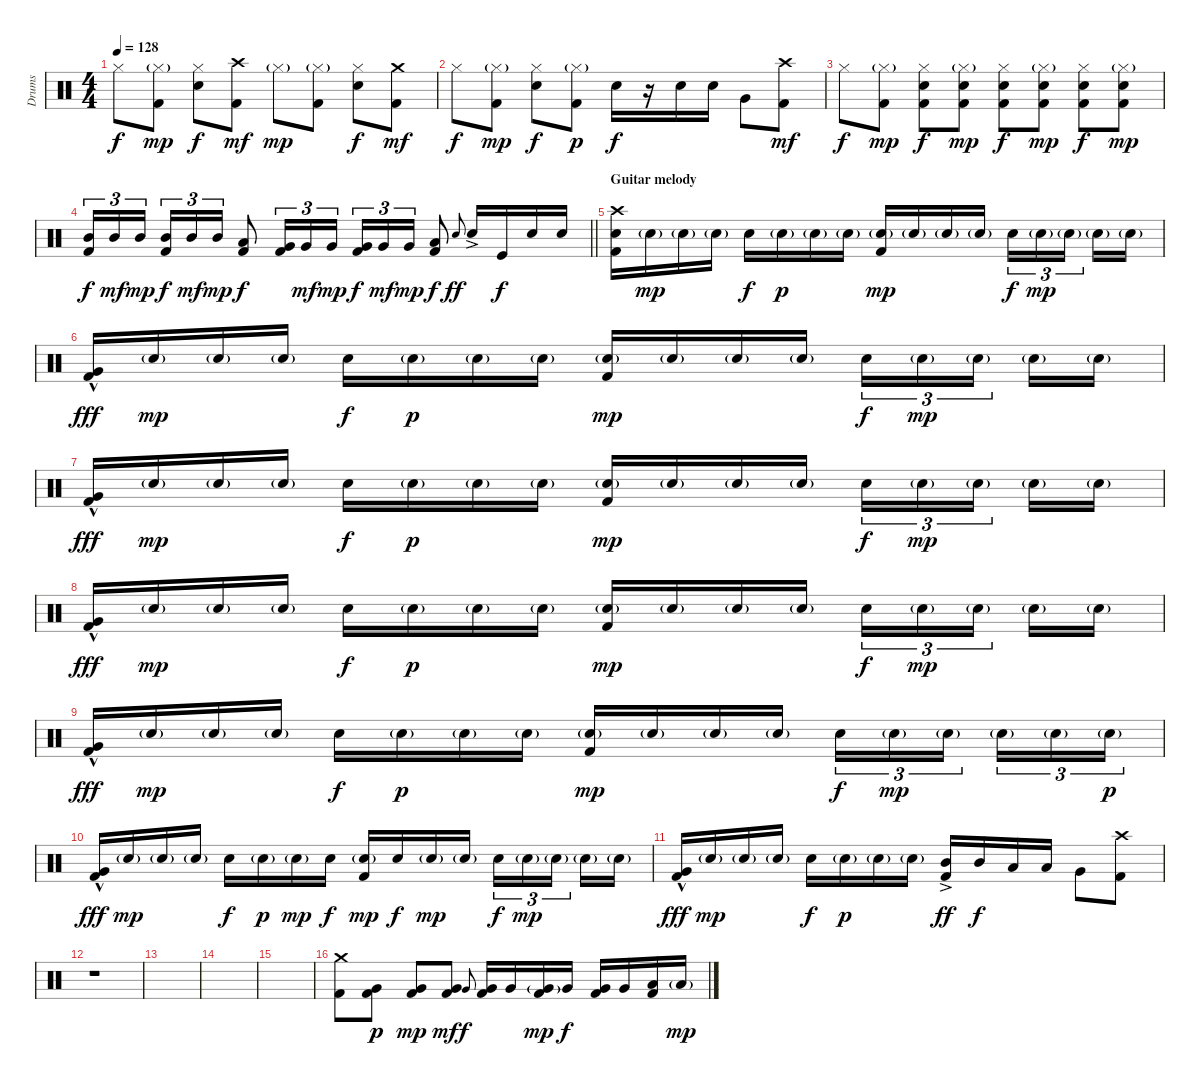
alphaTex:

\track ("Drums" "Drums") {instrument percussion}
\staff {score}
\articulation defaults
\ts (4 4)
\tempo 128
\clef neutral
\ks c "Hi-Hat (closed)".8{dy f}
("Hi-Hat (closed)"{g} "Kick (hit) 2").8{dy mp} ("Hi-Hat (closed)" "Electric Snare (hit)").8{dy f} ("Crash high (hit)" "Kick (hit) 2").8{dy mf} "Hi-Hat (closed)"{g}.8{dy mp} ("Hi-Hat (closed)"{g} "Kick (hit) 2").8 ("Hi-Hat (closed)" "Electric Snare (hit)").8{dy f} ("Crash medium (hit)" "Kick (hit) 2").8{dy mf} |
"Hi-Hat (closed)".8{dy f} ("Hi-Hat (closed)"{g} "Kick (hit) 2").8{dy mp} ("Hi-Hat (closed)" "Electric Snare (hit)").8{dy f} ("Hi-Hat (closed)"{g} "Kick (hit) 2").8{dy p} "Electric Snare (hit)".16{dy f} r.16 "Electric Snare (hit)".16 "Electric Snare (hit)".16 "Very Low Tom (hit)".8 ("Crash high (hit)" "Kick (hit) 2").8{dy mf} |
"Hi-Hat (closed)".8{dy f} ("Hi-Hat (closed)"{g} "Kick (hit) 2").8{dy mp} ("Hi-Hat (closed)" "Electric Snare (hit)" "Kick (hit) 2").8{dy f} ("Hi-Hat (closed)"{g} "Electric Snare (hit)" "Kick (hit) 2").8{dy mp} ("Hi-Hat (closed)" "Electric Snare (hit)" "Kick (hit) 2").8{dy f} ("Hi-Hat (closed)"{g} "Electric Snare (hit)" "Kick (hit) 2").8{dy mp} ("Hi-Hat (closed)" "Electric Snare (hit)" "Kick (hit) 2").8{dy f} ("Hi-Hat (closed)"{g} "Electric Snare (hit)" "Kick (hit) 2").8{dy mp} |
\barLineRight lightlight
("Mid Tom (hit)" "Kick (hit) 2").16{tu (3 2) dy f} "Mid Tom (hit)".16{tu (3 2) dy mf} "Mid Tom (hit)".16{tu (3 2) dy mp beam splitsecondary} ("Mid Tom (hit)" "Kick (hit) 2").16{tu (3 2) dy f} "Mid Tom (hit)".16{tu (3 2) dy mf} "Mid Tom (hit)".16{tu (3 2) dy mp} ("Low Tom (hit)" "Kick (hit) 2").8{dy f} ("Very Low Tom (hit)" "Kick (hit) 2").16{tu (3 2)} "Very Low Tom (hit)".16{tu (3 2) dy mf} "Very Low Tom (hit)".16{tu (3 2) dy mp} ("Very Low Tom (hit)" "Kick (hit) 2").16{tu (3 2) dy f} "Very Low Tom (hit)".16{tu (3 2) dy mf} "Very Low Tom (hit)".16{tu (3 2) dy mp} ("Low Floor Tom (hit)" "Kick (hit) 2").8{dy f} "Electric Snare (hit)".8{gr onbeat dy ff} "Electric Snare (hit)"{ac}.16 "Kick (hit)".16{dy f} "Electric Snare (hit)".16 "Electric Snare (hit)".16 |
\section ("" "Guitar melody")
("Crash high (hit)" "Electric Snare (hit)" "Kick (hit) 2").16{volume 15} "Electric Snare (hit)"{g}.16{dy mp} "Electric Snare (hit)"{g}.16 "Electric Snare (hit)"{g}.16 "Electric Snare (hit)".16{dy f} "Electric Snare (hit)"{g}.16{dy p} "Electric Snare (hit)"{g}.16 "Electric Snare (hit)"{g}.16 ("Electric Snare (hit)"{g} "Kick (hit) 2").16{dy mp} "Electric Snare (hit)"{g}.16 "Electric Snare (hit)"{g}.16 "Electric Snare (hit)"{g}.16 "Electric Snare (hit)".16{tu (3 2) dy f} "Electric Snare (hit)"{g}.16{tu (3 2) dy mp} "Electric Snare (hit)"{g}.16{tu (3 2) beam splitsecondary} "Electric Snare (hit)"{g}.16 "Electric Snare (hit)"{g}.16 |
("Very Low Tom (hit)"{hac} "Kick (hit) 2").16{dy fff} "Electric Snare (hit)"{g}.16{dy mp} "Electric Snare (hit)"{g}.16 "Electric Snare (hit)"{g}.16 "Electric Snare (hit)".16{dy f} "Electric Snare (hit)"{g}.16{dy p} "Electric Snare (hit)"{g}.16 "Electric Snare (hit)"{g}.16 ("Electric Snare (hit)"{g} "Kick (hit) 2").16{dy mp} "Electric Snare (hit)"{g}.16 "Electric Snare (hit)"{g}.16 "Electric Snare (hit)"{g}.16 "Electric Snare (hit)".16{tu (3 2) dy f} "Electric Snare (hit)"{g}.16{tu (3 2) dy mp} "Electric Snare (hit)"{g}.16{tu (3 2) beam splitsecondary} "Electric Snare (hit)"{g}.16 "Electric Snare (hit)"{g}.16 |
("Very Low Tom (hit)"{hac} "Kick (hit) 2").16{dy fff} "Electric Snare (hit)"{g}.16{dy mp} "Electric Snare (hit)"{g}.16 "Electric Snare (hit)"{g}.16 "Electric Snare (hit)".16{dy f} "Electric Snare (hit)"{g}.16{dy p} "Electric Snare (hit)"{g}.16 "Electric Snare (hit)"{g}.16 ("Electric Snare (hit)"{g} "Kick (hit) 2").16{dy mp} "Electric Snare (hit)"{g}.16 "Electric Snare (hit)"{g}.16 "Electric Snare (hit)"{g}.16 "Electric Snare (hit)".16{tu (3 2) dy f} "Electric Snare (hit)"{g}.16{tu (3 2) dy mp} "Electric Snare (hit)"{g}.16{tu (3 2) beam splitsecondary} "Electric Snare (hit)"{g}.16 "Electric Snare (hit)"{g}.16 |
("Very Low Tom (hit)"{hac} "Kick (hit) 2").16{dy fff} "Electric Snare (hit)"{g}.16{dy mp} "Electric Snare (hit)"{g}.16 "Electric Snare (hit)"{g}.16 "Electric Snare (hit)".16{dy f} "Electric Snare (hit)"{g}.16{dy p} "Electric Snare (hit)"{g}.16 "Electric Snare (hit)"{g}.16 ("Electric Snare (hit)"{g} "Kick (hit) 2").16{dy mp} "Electric Snare (hit)"{g}.16 "Electric Snare (hit)"{g}.16 "Electric Snare (hit)"{g}.16 "Electric Snare (hit)".16{tu (3 2) dy f} "Electric Snare (hit)"{g}.16{tu (3 2) dy mp} "Electric Snare (hit)"{g}.16{tu (3 2) beam splitsecondary} "Electric Snare (hit)"{g}.16 "Electric Snare (hit)"{g}.16 |
("Very Low Tom (hit)"{hac} "Kick (hit) 2").16{dy fff} "Electric Snare (hit)"{g}.16{dy mp} "Electric Snare (hit)"{g}.16 "Electric Snare (hit)"{g}.16 "Electric Snare (hit)".16{dy f} "Electric Snare (hit)"{g}.16{dy p} "Electric Snare (hit)"{g}.16 "Electric Snare (hit)"{g}.16 ("Electric Snare (hit)"{g} "Kick (hit) 2").16{dy mp} "Electric Snare (hit)"{g}.16 "Electric Snare (hit)"{g}.16 "Electric Snare (hit)"{g}.16 "Electric Snare (hit)".16{tu (3 2) dy f} "Electric Snare (hit)"{g}.16{tu (3 2) dy mp} "Electric Snare (hit)"{g}.16{tu (3 2) beam splitsecondary} "Electric Snare (hit)"{g}.16{tu (3 2)} "Electric Snare (hit)"{g}.16{tu (3 2)} "Electric Snare (hit)"{g}.16{tu (3 2) dy p} |
("Very Low Tom (hit)"{hac} "Kick (hit) 2").16{dy fff} "Electric Snare (hit)"{g}.16{dy mp} "Electric Snare (hit)"{g}.16 "Electric Snare (hit)"{g}.16 "Electric Snare (hit)".16{dy f} "Electric Snare (hit)"{g}.16{dy p} "Electric Snare (hit)"{g}.16{dy mp} "Electric Snare (hit)".16{dy f} ("Electric Snare (hit)"{g} "Kick (hit) 2").16{dy mp} "Electric Snare (hit)".16{dy f} "Electric Snare (hit)"{g}.16{dy mp} "Electric Snare (hit)"{g}.16 "Electric Snare (hit)".16{tu (3 2) dy f} "Electric Snare (hit)"{g}.16{tu (3 2) dy mp} "Electric Snare (hit)"{g}.16{tu (3 2) beam splitsecondary} "Electric Snare (hit)"{g}.16 "Electric Snare (hit)"{g}.16 |
("Very Low Tom (hit)"{hac} "Kick (hit) 2").16{dy fff} "Electric Snare (hit)"{g}.16{dy mp} "Electric Snare (hit)"{g}.16 "Electric Snare (hit)"{g}.16 "Electric Snare (hit)".16{dy f} "Electric Snare (hit)"{g}.16{dy p} "Electric Snare (hit)"{g}.16 "Electric Snare (hit)"{g}.16 ("Mid Tom (hit)"{ac} "Kick (hit) 2").16{dy ff} "Mid Tom (hit)".16{dy f} "Low Tom (hit)".16 "Low Tom (hit)".16 "Very Low Tom (hit)".8 ("Crash high (hit)" "Kick (hit) 2").8 |
r.1 |
|
|
|
("Crash medium (hit)" "Kick (hit) 2").8 ("Very Low Tom (hit)" "Kick (hit) 2").8{dy p} ("Very Low Tom (hit)" "Kick (hit) 2").8{dy mp} ("Very Low Tom (hit)" "Kick (hit) 2").8{dy mf} "Very Low Tom (hit)".8{gr onbeat dy f} ("Very Low Tom (hit)" "Kick (hit) 2").16 "Very Low Tom (hit)".16 ("Very Low Tom (hit)"{g} "Kick (hit) 2").16{dy mp} "Very Low Tom (hit)".16{dy f} ("Very Low Tom (hit)" "Kick (hit) 2").16 "Very Low Tom (hit)".16 ("Low Floor Tom (hit)" "Kick (hit) 2").16 "Low Floor Tom (hit)"{g}.16{dy mp}
